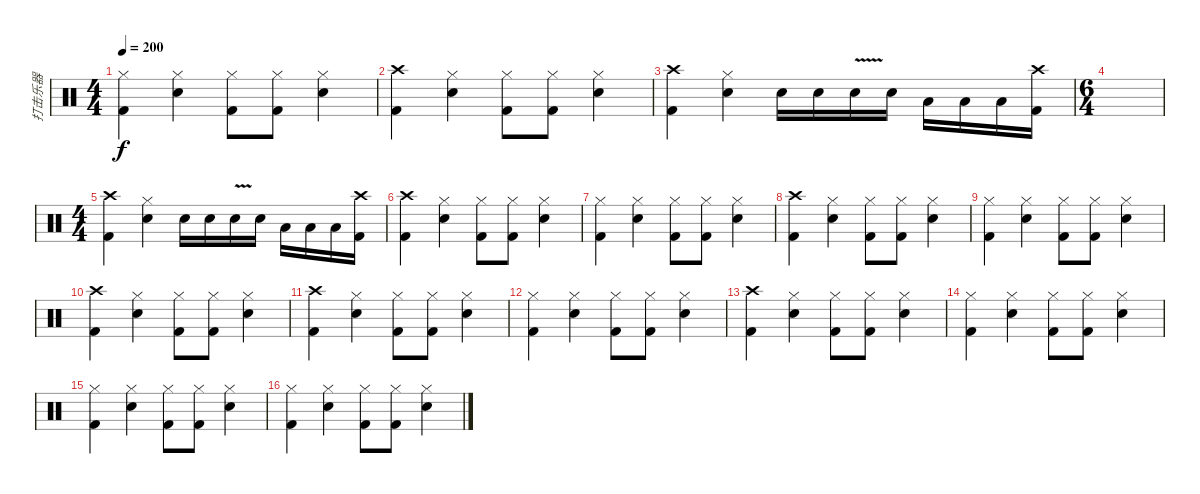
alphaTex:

\track ("打击乐器" "打击乐器") {instrument percussion}
\staff {score}
\articulation defaults
\ts (4 4)
\tempo 200
\clef neutral
\ks c
("Hi-Hat (closed)" "Kick (hit) 2").4{dy f} ("Hi-Hat (closed)" "Snare (hit) 2").4 ("Hi-Hat (closed)" "Kick (hit) 2").8 ("Hi-Hat (closed)" "Kick (hit) 2").8 ("Hi-Hat (closed)" "Snare (hit) 2").4 |
("Crash high (hit)" "Kick (hit) 2").4 ("Hi-Hat (closed)" "Snare (hit) 2").4 ("Hi-Hat (closed)" "Kick (hit) 2").8 ("Hi-Hat (closed)" "Kick (hit) 2").8 ("Hi-Hat (closed)" "Snare (hit) 2").4 |
("Crash high (hit)" "Kick (hit) 2").4 ("Hi-Hat (closed)" "Snare (hit) 2").4 "Snare (hit) 2".16 "Snare (hit) 2".16 "Snare (hit) 2"{v}.16 "Snare (hit) 2".16 "Low Floor Tom (hit)".16 "Low Floor Tom (hit)".16 "Low Tom (hit)".16 ("Crash high (hit)" "Kick (hit) 2").16 |
\ts (6 4)
|
\ts (4 4)
("Crash high (hit)" "Kick (hit) 2").4 ("Hi-Hat (closed)" "Snare (hit) 2").4 "Snare (hit) 2".16 "Snare (hit) 2".16 "Snare (hit) 2"{v}.16 "Snare (hit) 2".16 "Low Floor Tom (hit)".16 "Low Floor Tom (hit)".16 "Low Tom (hit)".16 ("Crash high (hit)" "Kick (hit) 2").16 |
("Crash high (hit)" "Kick (hit) 2").4 ("Hi-Hat (closed)" "Snare (hit) 2").4 ("Hi-Hat (closed)" "Kick (hit) 2").8 ("Hi-Hat (closed)" "Kick (hit) 2").8 ("Hi-Hat (closed)" "Snare (hit) 2").4 |
("Hi-Hat (closed)" "Kick (hit) 2").4 ("Hi-Hat (closed)" "Snare (hit) 2").4 ("Hi-Hat (closed)" "Kick (hit) 2").8 ("Hi-Hat (closed)" "Kick (hit) 2").8 ("Hi-Hat (closed)" "Snare (hit) 2").4 |
("Crash high (hit)" "Kick (hit) 2").4 ("Hi-Hat (closed)" "Snare (hit) 2").4 ("Hi-Hat (closed)" "Kick (hit) 2").8 ("Hi-Hat (closed)" "Kick (hit) 2").8 ("Hi-Hat (closed)" "Snare (hit) 2").4 |
("Hi-Hat (closed)" "Kick (hit) 2").4 ("Hi-Hat (closed)" "Snare (hit) 2").4 ("Hi-Hat (closed)" "Kick (hit) 2").8 ("Hi-Hat (closed)" "Kick (hit) 2").8 ("Hi-Hat (closed)" "Snare (hit) 2").4 |
("Crash high (hit)" "Kick (hit) 2").4 ("Hi-Hat (closed)" "Snare (hit) 2").4 ("Hi-Hat (closed)" "Kick (hit) 2").8 ("Hi-Hat (closed)" "Kick (hit) 2").8 ("Hi-Hat (closed)" "Snare (hit) 2").4 |
("Crash high (hit)" "Kick (hit) 2").4 ("Hi-Hat (closed)" "Snare (hit) 2").4 ("Hi-Hat (closed)" "Kick (hit) 2").8 ("Hi-Hat (closed)" "Kick (hit) 2").8 ("Hi-Hat (closed)" "Snare (hit) 2").4 |
("Hi-Hat (closed)" "Kick (hit) 2").4 ("Hi-Hat (closed)" "Snare (hit) 2").4 ("Hi-Hat (closed)" "Kick (hit) 2").8 ("Hi-Hat (closed)" "Kick (hit) 2").8 ("Hi-Hat (closed)" "Snare (hit) 2").4 |
("Crash high (hit)" "Kick (hit) 2").4 ("Hi-Hat (closed)" "Snare (hit) 2").4 ("Hi-Hat (closed)" "Kick (hit) 2").8 ("Hi-Hat (closed)" "Kick (hit) 2").8 ("Hi-Hat (closed)" "Snare (hit) 2").4 |
("Hi-Hat (closed)" "Kick (hit) 2").4 ("Hi-Hat (closed)" "Snare (hit) 2").4 ("Hi-Hat (closed)" "Kick (hit) 2").8 ("Hi-Hat (closed)" "Kick (hit) 2").8 ("Hi-Hat (closed)" "Snare (hit) 2").4 |
("Hi-Hat (closed)" "Kick (hit) 2").4 ("Hi-Hat (closed)" "Snare (hit) 2").4 ("Hi-Hat (closed)" "Kick (hit) 2").8 ("Hi-Hat (closed)" "Kick (hit) 2").8 ("Hi-Hat (closed)" "Snare (hit) 2").4 |
("Hi-Hat (closed)" "Kick (hit) 2").4 ("Hi-Hat (closed)" "Snare (hit) 2").4 ("Hi-Hat (closed)" "Kick (hit) 2").8 ("Hi-Hat (closed)" "Kick (hit) 2").8 ("Hi-Hat (closed)" "Snare (hit) 2").4
